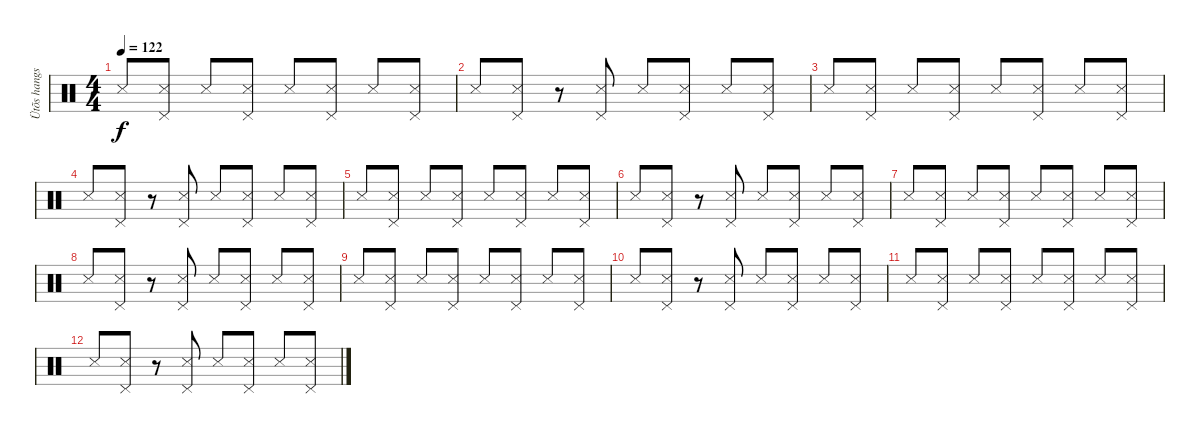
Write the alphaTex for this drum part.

\track ("Ütõs hangszer" "Ütõs hangs") {instrument percussion}
\staff {score}
\articulation defaults
\ts (4 4)
\tempo 122
\clef neutral
\ks c "Snare (side stick) 3".8{dy f}
("Snare (side stick) 3" "Pedal Hi-Hat (hit)").8 "Snare (side stick) 3".8 ("Snare (side stick) 3" "Pedal Hi-Hat (hit)").8 "Snare (side stick) 3".8 ("Snare (side stick) 3" "Pedal Hi-Hat (hit)").8 "Snare (side stick) 3".8 ("Snare (side stick) 3" "Pedal Hi-Hat (hit)").8 |
"Snare (side stick) 3".8 ("Snare (side stick) 3" "Pedal Hi-Hat (hit)").8 r.8 ("Snare (side stick) 3" "Pedal Hi-Hat (hit)").8 "Snare (side stick) 3".8 ("Snare (side stick) 3" "Pedal Hi-Hat (hit)").8 "Snare (side stick) 3".8 ("Snare (side stick) 3" "Pedal Hi-Hat (hit)").8 |
"Snare (side stick) 3".8 ("Snare (side stick) 3" "Pedal Hi-Hat (hit)").8 "Snare (side stick) 3".8 ("Snare (side stick) 3" "Pedal Hi-Hat (hit)").8 "Snare (side stick) 3".8 ("Snare (side stick) 3" "Pedal Hi-Hat (hit)").8 "Snare (side stick) 3".8 ("Snare (side stick) 3" "Pedal Hi-Hat (hit)").8 |
"Snare (side stick) 3".8 ("Snare (side stick) 3" "Pedal Hi-Hat (hit)").8 r.8 ("Snare (side stick) 3" "Pedal Hi-Hat (hit)").8 "Snare (side stick) 3".8 ("Snare (side stick) 3" "Pedal Hi-Hat (hit)").8 "Snare (side stick) 3".8 ("Snare (side stick) 3" "Pedal Hi-Hat (hit)").8 |
"Snare (side stick) 3".8 ("Snare (side stick) 3" "Pedal Hi-Hat (hit)").8 "Snare (side stick) 3".8 ("Snare (side stick) 3" "Pedal Hi-Hat (hit)").8 "Snare (side stick) 3".8 ("Snare (side stick) 3" "Pedal Hi-Hat (hit)").8 "Snare (side stick) 3".8 ("Snare (side stick) 3" "Pedal Hi-Hat (hit)").8 |
"Snare (side stick) 3".8 ("Snare (side stick) 3" "Pedal Hi-Hat (hit)").8 r.8 ("Snare (side stick) 3" "Pedal Hi-Hat (hit)").8 "Snare (side stick) 3".8 ("Snare (side stick) 3" "Pedal Hi-Hat (hit)").8 "Snare (side stick) 3".8 ("Snare (side stick) 3" "Pedal Hi-Hat (hit)").8 |
"Snare (side stick) 3".8 ("Snare (side stick) 3" "Pedal Hi-Hat (hit)").8 "Snare (side stick) 3".8 ("Snare (side stick) 3" "Pedal Hi-Hat (hit)").8 "Snare (side stick) 3".8 ("Snare (side stick) 3" "Pedal Hi-Hat (hit)").8 "Snare (side stick) 3".8 ("Snare (side stick) 3" "Pedal Hi-Hat (hit)").8 |
"Snare (side stick) 3".8 ("Snare (side stick) 3" "Pedal Hi-Hat (hit)").8 r.8 ("Snare (side stick) 3" "Pedal Hi-Hat (hit)").8 "Snare (side stick) 3".8 ("Snare (side stick) 3" "Pedal Hi-Hat (hit)").8 "Snare (side stick) 3".8 ("Snare (side stick) 3" "Pedal Hi-Hat (hit)").8 |
"Snare (side stick) 3".8 ("Snare (side stick) 3" "Pedal Hi-Hat (hit)").8 "Snare (side stick) 3".8 ("Snare (side stick) 3" "Pedal Hi-Hat (hit)").8 "Snare (side stick) 3".8 ("Snare (side stick) 3" "Pedal Hi-Hat (hit)").8 "Snare (side stick) 3".8 ("Snare (side stick) 3" "Pedal Hi-Hat (hit)").8 |
"Snare (side stick) 3".8 ("Snare (side stick) 3" "Pedal Hi-Hat (hit)").8 r.8 ("Snare (side stick) 3" "Pedal Hi-Hat (hit)").8 "Snare (side stick) 3".8 ("Snare (side stick) 3" "Pedal Hi-Hat (hit)").8 "Snare (side stick) 3".8 ("Snare (side stick) 3" "Pedal Hi-Hat (hit)").8 |
"Snare (side stick) 3".8 ("Snare (side stick) 3" "Pedal Hi-Hat (hit)").8 "Snare (side stick) 3".8 ("Snare (side stick) 3" "Pedal Hi-Hat (hit)").8 "Snare (side stick) 3".8 ("Snare (side stick) 3" "Pedal Hi-Hat (hit)").8 "Snare (side stick) 3".8 ("Snare (side stick) 3" "Pedal Hi-Hat (hit)").8 |
"Snare (side stick) 3".8 ("Snare (side stick) 3" "Pedal Hi-Hat (hit)").8 r.8 ("Snare (side stick) 3" "Pedal Hi-Hat (hit)").8 "Snare (side stick) 3".8 ("Snare (side stick) 3" "Pedal Hi-Hat (hit)").8 "Snare (side stick) 3".8 ("Snare (side stick) 3" "Pedal Hi-Hat (hit)").8
